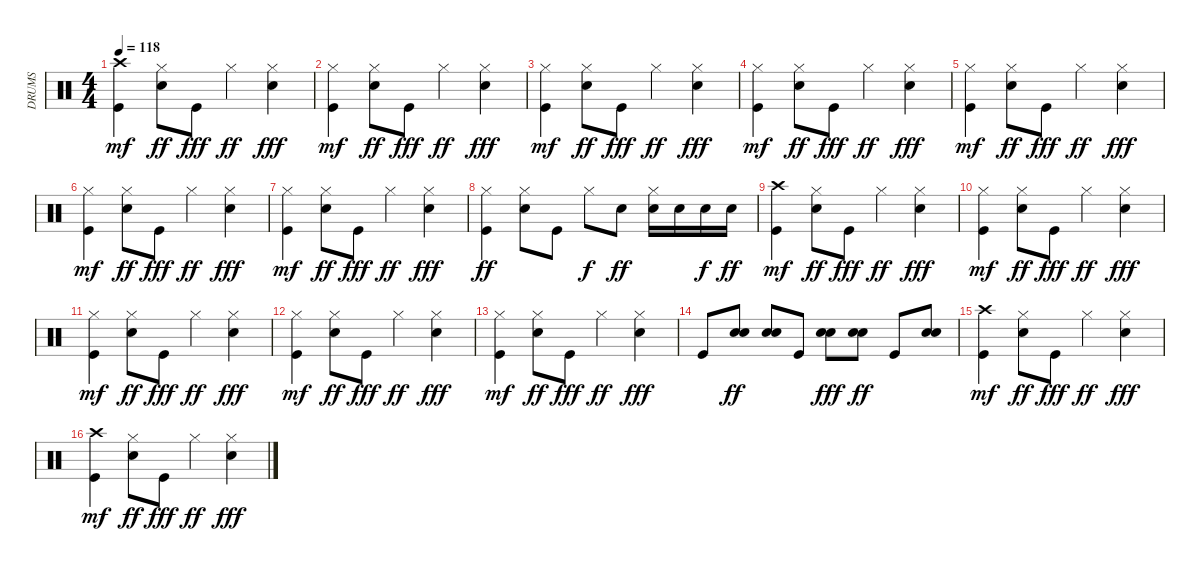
\track ("DRUMS" "DRUMS") {instrument percussion}
\staff {score}
\articulation defaults
\ts (4 4)
\tempo 118
\clef neutral
\ks c
("Kick (hit)" "Crash high (hit)").4{dy mf} ("Electric Snare (hit)" "Hi-Hat (closed)").8{dy ff} "Kick (hit)".8{dy fff} "Hi-Hat (closed)".4{dy ff} ("Electric Snare (hit)" "Hi-Hat (closed)").4{dy fff} |
("Kick (hit)" "Hi-Hat (closed)").4{dy mf} ("Electric Snare (hit)" "Hi-Hat (closed)").8{dy ff} "Kick (hit)".8{dy fff} "Hi-Hat (closed)".4{dy ff} ("Electric Snare (hit)" "Hi-Hat (closed)").4{dy fff} |
("Kick (hit)" "Hi-Hat (closed)").4{dy mf} ("Electric Snare (hit)" "Hi-Hat (closed)").8{dy ff} "Kick (hit)".8{dy fff} "Hi-Hat (closed)".4{dy ff} ("Electric Snare (hit)" "Hi-Hat (closed)").4{dy fff} |
("Kick (hit)" "Hi-Hat (closed)").4{dy mf} ("Electric Snare (hit)" "Hi-Hat (closed)").8{dy ff} "Kick (hit)".8{dy fff} "Hi-Hat (closed)".4{dy ff} ("Electric Snare (hit)" "Hi-Hat (closed)").4{dy fff} |
("Kick (hit)" "Hi-Hat (closed)").4{dy mf} ("Electric Snare (hit)" "Hi-Hat (closed)").8{dy ff} "Kick (hit)".8{dy fff} "Hi-Hat (closed)".4{dy ff} ("Electric Snare (hit)" "Hi-Hat (closed)").4{dy fff} |
("Kick (hit)" "Hi-Hat (closed)").4{dy mf} ("Electric Snare (hit)" "Hi-Hat (closed)").8{dy ff} "Kick (hit)".8{dy fff} "Hi-Hat (closed)".4{dy ff} ("Electric Snare (hit)" "Hi-Hat (closed)").4{dy fff} |
("Kick (hit)" "Hi-Hat (closed)").4{dy mf} ("Electric Snare (hit)" "Hi-Hat (closed)").8{dy ff} "Kick (hit)".8{dy fff} "Hi-Hat (closed)".4{dy ff} ("Electric Snare (hit)" "Hi-Hat (closed)").4{dy fff} |
("Kick (hit)" "Hi-Hat (closed)").4{dy ff} ("Electric Snare (hit)" "Hi-Hat (closed)").8 "Kick (hit)".8 "Hi-Hat (closed)".8{dy f} "Electric Snare (hit)".8{dy ff} ("Electric Snare (hit)" "Hi-Hat (closed)").16 "Electric Snare (hit)".16 "Electric Snare (hit)".16{dy f} "Electric Snare (hit)".16{dy ff} |
("Kick (hit)" "Crash high (hit)").4{dy mf} ("Electric Snare (hit)" "Hi-Hat (closed)").8{dy ff} "Kick (hit)".8{dy fff} "Hi-Hat (closed)".4{dy ff} ("Electric Snare (hit)" "Hi-Hat (closed)").4{dy fff} |
("Kick (hit)" "Hi-Hat (closed)").4{dy mf} ("Electric Snare (hit)" "Hi-Hat (closed)").8{dy ff} "Kick (hit)".8{dy fff} "Hi-Hat (closed)".4{dy ff} ("Electric Snare (hit)" "Hi-Hat (closed)").4{dy fff} |
("Kick (hit)" "Hi-Hat (closed)").4{dy mf} ("Electric Snare (hit)" "Hi-Hat (closed)").8{dy ff} "Kick (hit)".8{dy fff} "Hi-Hat (closed)".4{dy ff} ("Electric Snare (hit)" "Hi-Hat (closed)").4{dy fff} |
("Kick (hit)" "Hi-Hat (closed)").4{dy mf} ("Electric Snare (hit)" "Hi-Hat (closed)").8{dy ff} "Kick (hit)".8{dy fff} "Hi-Hat (closed)".4{dy ff} ("Electric Snare (hit)" "Hi-Hat (closed)").4{dy fff} |
("Kick (hit)" "Hi-Hat (closed)").4{dy mf} ("Electric Snare (hit)" "Hi-Hat (closed)").8{dy ff} "Kick (hit)".8{dy fff} "Hi-Hat (closed)".4{dy ff} ("Electric Snare (hit)" "Hi-Hat (closed)").4{dy fff} |
"Kick (hit)".8 ("Electric Snare (hit)" "Electric Snare (hit)").8{dy ff} ("Electric Snare (hit)" "Electric Snare (hit)").8 "Kick (hit)".8 ("Electric Snare (hit)" "Electric Snare (hit)").8{dy fff} ("Electric Snare (hit)" "Electric Snare (hit)").8{dy ff} "Kick (hit)".8 ("Electric Snare (hit)" "Electric Snare (hit)").8 |
("Kick (hit)" "Crash high (hit)").4{dy mf} ("Electric Snare (hit)" "Hi-Hat (closed)").8{dy ff} "Kick (hit)".8{dy fff} "Hi-Hat (closed)".4{dy ff} ("Electric Snare (hit)" "Hi-Hat (closed)").4{dy fff} |
("Kick (hit)" "Crash high (hit)").4{dy mf} ("Electric Snare (hit)" "Hi-Hat (closed)").8{dy ff} "Kick (hit)".8{dy fff} "Hi-Hat (closed)".4{dy ff} ("Electric Snare (hit)" "Hi-Hat (closed)").4{dy fff}
